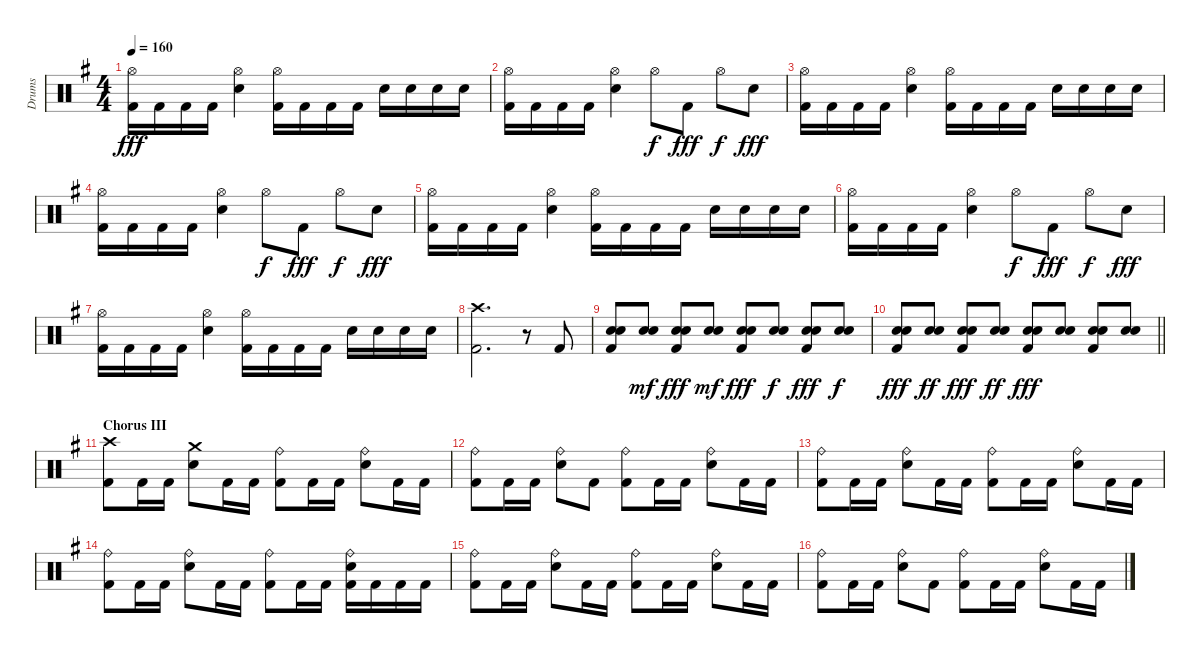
\track ("Drums" "Drums") {instrument percussion}
\staff {score}
\articulation defaults
\ts (4 4)
\tempo 160
\clef neutral
\ks g
("Hi-Hat (open)" "Kick (hit) 2").16{dy fff} "Kick (hit) 2".16 "Kick (hit) 2".16 "Kick (hit) 2".16 ("Hi-Hat (open)" "Snare (hit) 2").4 ("Hi-Hat (open)" "Kick (hit) 2").16 "Kick (hit) 2".16 "Kick (hit) 2".16 "Kick (hit) 2".16 "Snare (hit) 2".16 "Snare (hit) 2".16 "Snare (hit) 2".16 "Snare (hit) 2".16 |
("Hi-Hat (open)" "Kick (hit) 2").16 "Kick (hit) 2".16 "Kick (hit) 2".16 "Kick (hit) 2".16 ("Hi-Hat (open)" "Snare (hit) 2").4 "Hi-Hat (open)".8{dy f} "Kick (hit) 2".8{dy fff} "Hi-Hat (open)".8{dy f} "Snare (hit) 2".8{dy fff} |
("Hi-Hat (open)" "Kick (hit) 2").16 "Kick (hit) 2".16 "Kick (hit) 2".16 "Kick (hit) 2".16 ("Hi-Hat (open)" "Snare (hit) 2").4 ("Hi-Hat (open)" "Kick (hit) 2").16 "Kick (hit) 2".16 "Kick (hit) 2".16 "Kick (hit) 2".16 "Snare (hit) 2".16 "Snare (hit) 2".16 "Snare (hit) 2".16 "Snare (hit) 2".16 |
("Hi-Hat (open)" "Kick (hit) 2").16 "Kick (hit) 2".16 "Kick (hit) 2".16 "Kick (hit) 2".16 ("Hi-Hat (open)" "Snare (hit) 2").4 "Hi-Hat (open)".8{dy f} "Kick (hit) 2".8{dy fff} "Hi-Hat (open)".8{dy f} "Snare (hit) 2".8{dy fff} |
("Hi-Hat (open)" "Kick (hit) 2").16 "Kick (hit) 2".16 "Kick (hit) 2".16 "Kick (hit) 2".16 ("Hi-Hat (open)" "Snare (hit) 2").4 ("Hi-Hat (open)" "Kick (hit) 2").16 "Kick (hit) 2".16 "Kick (hit) 2".16 "Kick (hit) 2".16 "Snare (hit) 2".16 "Snare (hit) 2".16 "Snare (hit) 2".16 "Snare (hit) 2".16 |
("Hi-Hat (open)" "Kick (hit) 2").16 "Kick (hit) 2".16 "Kick (hit) 2".16 "Kick (hit) 2".16 ("Hi-Hat (open)" "Snare (hit) 2").4 "Hi-Hat (open)".8{dy f} "Kick (hit) 2".8{dy fff} "Hi-Hat (open)".8{dy f} "Snare (hit) 2".8{dy fff} |
("Hi-Hat (open)" "Kick (hit) 2").16 "Kick (hit) 2".16 "Kick (hit) 2".16 "Kick (hit) 2".16 ("Hi-Hat (open)" "Snare (hit) 2").4 ("Hi-Hat (open)" "Kick (hit) 2").16 "Kick (hit) 2".16 "Kick (hit) 2".16 "Kick (hit) 2".16 "Snare (hit) 2".16 "Snare (hit) 2".16 "Snare (hit) 2".16 "Snare (hit) 2".16 |
("Crash high (hit)" "Kick (hit) 2").2{d} r.8 "Kick (hit) 2".8 |
("Electric Snare (hit)" "Snare (hit) 2" "Kick (hit) 2").8{volume 12} ("Electric Snare (hit)" "Snare (hit) 2").8{dy mf} ("Electric Snare (hit)" "Snare (hit) 2" "Kick (hit) 2").8{dy fff} ("Electric Snare (hit)" "Snare (hit) 2").8{dy mf} ("Electric Snare (hit)" "Snare (hit) 2" "Kick (hit) 2").8{dy fff} ("Electric Snare (hit)" "Snare (hit) 2").8{dy f} ("Electric Snare (hit)" "Snare (hit) 2" "Kick (hit) 2").8{dy fff} ("Electric Snare (hit)" "Snare (hit) 2").8{dy f} |
\barLineRight lightlight
("Electric Snare (hit)" "Snare (hit) 2" "Kick (hit) 2").8{dy fff} ("Electric Snare (hit)" "Snare (hit) 2").8{dy ff} ("Electric Snare (hit)" "Snare (hit) 2" "Kick (hit) 2").8{dy fff} ("Electric Snare (hit)" "Snare (hit) 2").8{dy ff} ("Electric Snare (hit)" "Snare (hit) 2" "Kick (hit) 2").8{dy fff} ("Electric Snare (hit)" "Snare (hit) 2").8 ("Electric Snare (hit)" "Snare (hit) 2" "Kick (hit) 2").8 ("Electric Snare (hit)" "Snare (hit) 2").8 |
\section ("" "Chorus III")
("Crash high (hit)" "Kick (hit) 2").8 "Kick (hit) 2".16 "Kick (hit) 2".16 ("Crash medium (hit)" "Snare (hit) 2").8 "Kick (hit) 2".16 "Kick (hit) 2".16 ("Ride (bell)" "Kick (hit) 2").8 "Kick (hit) 2".16 "Kick (hit) 2".16 ("Ride (bell)" "Snare (hit) 2").8 "Kick (hit) 2".16 "Kick (hit) 2".16 |
("Ride (bell)" "Kick (hit) 2").8 "Kick (hit) 2".16 "Kick (hit) 2".16 ("Ride (bell)" "Snare (hit) 2").8 "Kick (hit) 2".8 ("Ride (bell)" "Kick (hit) 2").8 "Kick (hit) 2".16 "Kick (hit) 2".16 ("Ride (bell)" "Snare (hit) 2").8 "Kick (hit) 2".16 "Kick (hit) 2".16 |
("Ride (bell)" "Kick (hit) 2").8 "Kick (hit) 2".16 "Kick (hit) 2".16 ("Ride (bell)" "Snare (hit) 2").8 "Kick (hit) 2".16 "Kick (hit) 2".16 ("Ride (bell)" "Kick (hit) 2").8 "Kick (hit) 2".16 "Kick (hit) 2".16 ("Ride (bell)" "Snare (hit) 2").8 "Kick (hit) 2".16 "Kick (hit) 2".16 |
("Ride (bell)" "Kick (hit) 2").8 "Kick (hit) 2".16 "Kick (hit) 2".16 ("Ride (bell)" "Snare (hit) 2").8 "Kick (hit) 2".16 "Kick (hit) 2".16 ("Ride (bell)" "Kick (hit) 2").8 "Kick (hit) 2".16 "Kick (hit) 2".16 ("Ride (bell)" "Snare (hit) 2" "Kick (hit) 2").16 "Kick (hit) 2".16 "Kick (hit) 2".16 "Kick (hit) 2".16 |
("Ride (bell)" "Kick (hit) 2").8 "Kick (hit) 2".16 "Kick (hit) 2".16 ("Ride (bell)" "Snare (hit) 2").8 "Kick (hit) 2".16 "Kick (hit) 2".16 ("Ride (bell)" "Kick (hit) 2").8 "Kick (hit) 2".16 "Kick (hit) 2".16 ("Ride (bell)" "Snare (hit) 2").8 "Kick (hit) 2".16 "Kick (hit) 2".16 |
("Ride (bell)" "Kick (hit) 2").8 "Kick (hit) 2".16 "Kick (hit) 2".16 ("Ride (bell)" "Snare (hit) 2").8 "Kick (hit) 2".8 ("Ride (bell)" "Kick (hit) 2").8 "Kick (hit) 2".16 "Kick (hit) 2".16 ("Ride (bell)" "Snare (hit) 2").8 "Kick (hit) 2".16 "Kick (hit) 2".16
